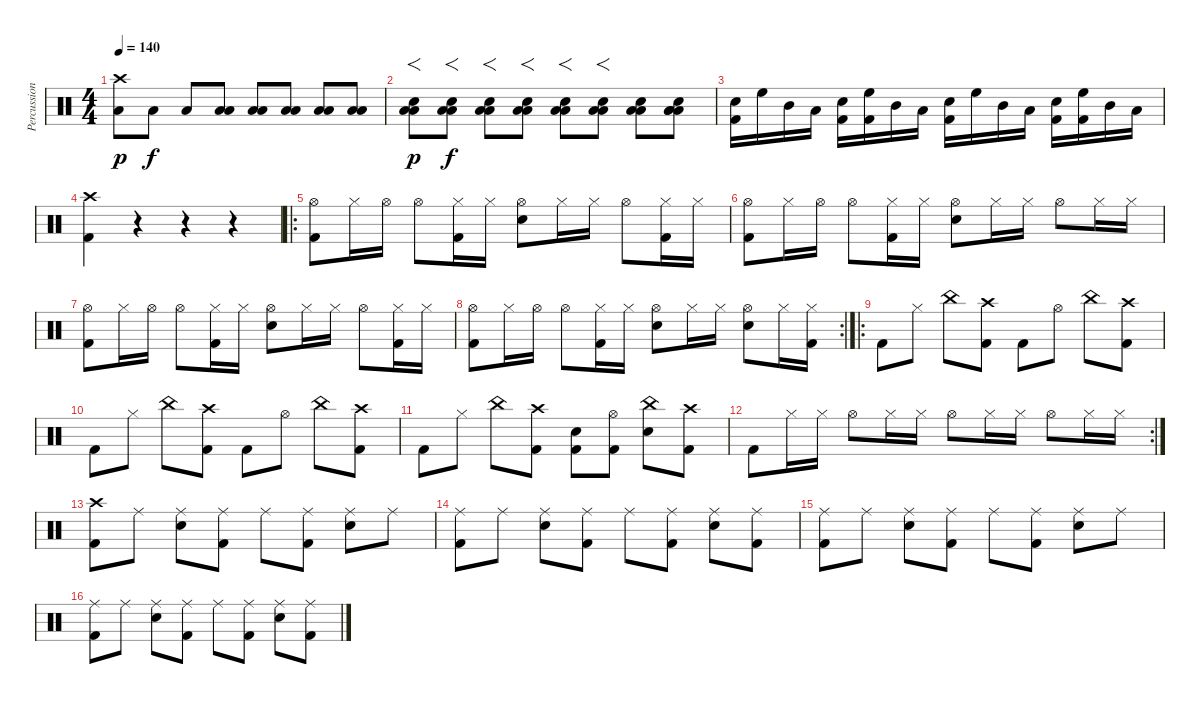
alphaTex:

\track ("Percussions" "Percussion") {instrument percussion}
\staff {score}
\articulation defaults
\ts (4 4)
\tempo 140
\clef neutral
\ks c
("Crash high (hit)" "Low Floor Tom (hit)").8{dy p} "Low Floor Tom (hit)".8{dy f} "Low Floor Tom (hit)".8 ("Low Tom (hit)" "Low Floor Tom (hit)").8 ("Low Tom (hit)" "Low Floor Tom (hit)").8 ("Low Tom (hit)" "Low Floor Tom (hit)").8 ("Low Tom (hit)" "Low Floor Tom (hit)").8 ("Low Tom (hit)" "Low Floor Tom (hit)").8 |
("Electric Snare (hit)" "Low Tom (hit)" "Low Floor Tom (hit)").8{f dy p} ("Electric Snare (hit)" "Low Tom (hit)" "Low Floor Tom (hit)").8{f dy f} ("Electric Snare (hit)" "Low Tom (hit)" "Low Floor Tom (hit)").8{f} ("Electric Snare (hit)" "Low Tom (hit)" "Low Floor Tom (hit)").8{f} ("Electric Snare (hit)" "Low Tom (hit)" "Low Floor Tom (hit)").8{f} ("Electric Snare (hit)" "Low Tom (hit)" "Low Floor Tom (hit)").8{f} ("Electric Snare (hit)" "Low Tom (hit)" "Low Floor Tom (hit)").8 ("Electric Snare (hit)" "Low Tom (hit)" "Low Floor Tom (hit)" "Low Tom (hit)").8 |
("Electric Snare (hit)" "Kick (hit) 2").16 "High Floor Tom (hit)".16 "Mid Tom (hit)".16 "Low Tom (hit)".16 ("Electric Snare (hit)" "Kick (hit) 2").16 ("High Floor Tom (hit)" "Kick (hit) 2").16 "Mid Tom (hit)".16 "Low Floor Tom (hit)".16 ("Electric Snare (hit)" "Kick (hit) 2").16 "High Floor Tom (hit)".16 "Mid Tom (hit)".16 "Low Tom (hit)".16 ("Electric Snare (hit)" "Kick (hit) 2").16 ("High Floor Tom (hit)" "Kick (hit) 2").16 "Mid Tom (hit)".16 "Low Floor Tom (hit)".16 |
("Crash high (hit)" "Kick (hit) 2").4 r.4 r.4 r.4 |
\ro
("Hi-Hat (open)" "Kick (hit) 2").8 "Hi-Hat (closed)".16 "Hi-Hat (open)".16 "Hi-Hat (open)".8 ("Hi-Hat (closed)" "Kick (hit) 2").16 "Hi-Hat (closed)".16 ("Hi-Hat (open)" "Electric Snare (hit)").8 "Hi-Hat (closed)".16 "Hi-Hat (closed)".16 "Hi-Hat (open)".8 ("Hi-Hat (closed)" "Kick (hit) 2").16 "Hi-Hat (closed)".16 |
("Hi-Hat (open)" "Kick (hit) 2").8 "Hi-Hat (closed)".16 "Hi-Hat (open)".16 "Hi-Hat (open)".8 ("Hi-Hat (closed)" "Kick (hit) 2").16 "Hi-Hat (closed)".16 ("Hi-Hat (open)" "Electric Snare (hit)").8 "Hi-Hat (closed)".16 "Hi-Hat (closed)".16 "Hi-Hat (open)".8 "Hi-Hat (closed)".16 "Hi-Hat (closed)".16 |
("Hi-Hat (open)" "Kick (hit) 2").8 "Hi-Hat (closed)".16 "Hi-Hat (open)".16 "Hi-Hat (open)".8 ("Hi-Hat (closed)" "Kick (hit) 2").16 "Hi-Hat (closed)".16 ("Hi-Hat (open)" "Electric Snare (hit)").8 "Hi-Hat (closed)".16 "Hi-Hat (closed)".16 "Hi-Hat (open)".8 ("Hi-Hat (closed)" "Kick (hit) 2").16 "Hi-Hat (closed)".16 |
\rc 2
("Hi-Hat (open)" "Kick (hit) 2").8 "Hi-Hat (closed)".16 "Hi-Hat (open)".16 "Hi-Hat (open)".8 ("Hi-Hat (closed)" "Kick (hit) 2").16 "Hi-Hat (closed)".16 ("Hi-Hat (open)" "Electric Snare (hit)").8 "Hi-Hat (closed)".16 "Hi-Hat (closed)".16 ("Hi-Hat (open)" "Electric Snare (hit)").8 "Hi-Hat (closed)".16 ("Hi-Hat (closed)" "Kick (hit) 2").16 |
\ro "Kick (hit) 2".8 "Hi-Hat (closed)".8 "China (hit)".8
("Crash high (hit)" "Kick (hit) 2").8 "Kick (hit) 2".8 "Hi-Hat (open)".8 "China (hit)".8 ("Crash high (hit)" "Kick (hit) 2").8 |
"Kick (hit) 2".8 "Hi-Hat (closed)".8 "China (hit)".8 ("Crash high (hit)" "Kick (hit) 2").8 "Kick (hit) 2".8 "Hi-Hat (open)".8 "China (hit)".8 ("Crash high (hit)" "Kick (hit) 2").8 |
"Kick (hit) 2".8 "Hi-Hat (closed)".8 "China (hit)".8 ("Crash high (hit)" "Kick (hit) 2").8 ("Electric Snare (hit)" "Kick (hit) 2").8 ("Hi-Hat (open)" "Kick (hit) 2").8 ("China (hit)" "Electric Snare (hit)").8 ("Crash high (hit)" "Kick (hit) 2").8 |
\rc 2 "Kick (hit) 2".8 "Hi-Hat (closed)".16 "Hi-Hat (closed)".16 "Hi-Hat (open)".8 "Hi-Hat (closed)".16 "Hi-Hat (closed)".16 "Hi-Hat (open)".8 "Hi-Hat (closed)".16 "Hi-Hat (closed)".16 "Hi-Hat (open)".8 "Hi-Hat (closed)".16 "Hi-Hat (closed)".16
|
("Crash high (hit)" "Kick (hit) 2").8 "Ride (middle)".8 ("Ride (middle)" "Snare (hit) 2").8 ("Ride (middle)" "Kick (hit) 2").8 "Ride (middle)".8 ("Ride (middle)" "Kick (hit) 2").8 ("Ride (middle)" "Snare (hit) 2").8 "Ride (middle)".8 |
("Ride (middle)" "Kick (hit) 2").8 "Ride (middle)".8 ("Ride (middle)" "Snare (hit) 2").8 ("Ride (middle)" "Kick (hit) 2").8 "Ride (middle)".8 ("Ride (middle)" "Kick (hit) 2").8 ("Ride (middle)" "Snare (hit) 2").8 ("Ride (middle)" "Kick (hit) 2").8 |
("Ride (middle)" "Kick (hit) 2").8 "Ride (middle)".8 ("Ride (middle)" "Snare (hit) 2").8 ("Ride (middle)" "Kick (hit) 2").8 "Ride (middle)".8 ("Ride (middle)" "Kick (hit) 2").8 ("Ride (middle)" "Snare (hit) 2").8 "Ride (middle)".8 |
("Ride (middle)" "Kick (hit) 2").8 "Ride (middle)".8 ("Ride (middle)" "Snare (hit) 2").8 ("Ride (middle)" "Kick (hit) 2").8 "Ride (middle)".8 ("Ride (middle)" "Kick (hit) 2").8 ("Ride (middle)" "Snare (hit) 2").8 ("Ride (middle)" "Kick (hit) 2").8
